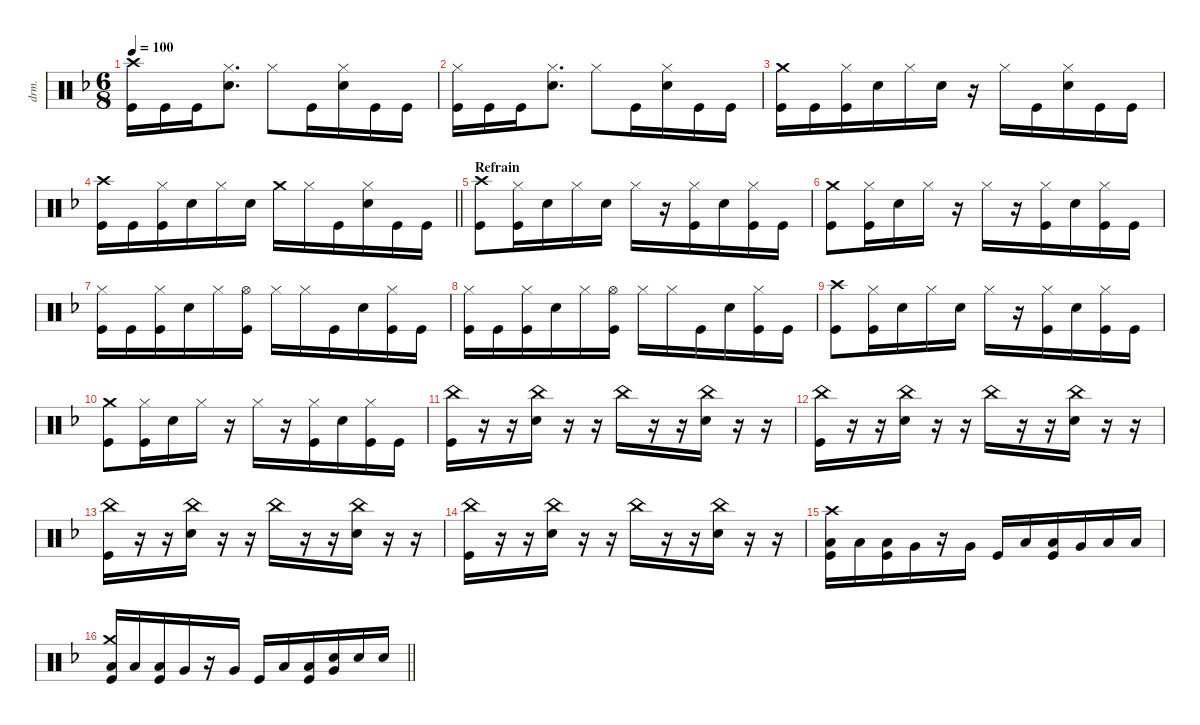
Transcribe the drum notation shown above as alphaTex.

\defaultSystemsLayout 4
\hideDynamics
\bracketExtendMode nobrackets
\otherSystemsTrackNameOrientation horizontal
\track ("Percussions" "drm.") {instrument percussion}
\staff {score}
\articulation defaults
\ts (6 8)
\tempo 100
\clef neutral
\ks dminor
("Crash high (hit)"{acc forcenatural} "Kick (hit)"{acc forcenatural}).16{dy f} "Kick (hit)"{acc forcenatural}.16 "Kick (hit)"{acc forcenatural}.16 ("Hi-Hat (closed)"{acc forcenatural} "Snare (hit) 2"{acc forcenatural}).8{d} "Hi-Hat (closed)"{acc forcenatural}.8 "Kick (hit)"{acc forcenatural}.16 ("Hi-Hat (closed)"{acc forcenatural} "Snare (hit) 2"{acc forcenatural}).16 "Kick (hit)"{acc forcenatural}.16 "Kick (hit)"{acc forcenatural}.16 |
("Hi-Hat (closed)"{acc forcenatural} "Kick (hit)"{acc forcenatural}).16 "Kick (hit)"{acc forcenatural}.16 "Kick (hit)"{acc forcenatural}.16 ("Hi-Hat (closed)"{acc forcenatural} "Snare (hit) 2"{acc forcenatural}).8{d} "Hi-Hat (closed)"{acc forcenatural}.8 "Kick (hit)"{acc forcenatural}.16 ("Hi-Hat (closed)"{acc forcenatural} "Snare (hit) 2"{acc forcenatural}).16 "Kick (hit)"{acc forcenatural}.16 "Kick (hit)"{acc forcenatural}.16 |
("Crash medium (hit)"{acc forcenatural} "Kick (hit)"{acc forcenatural}).16 "Kick (hit)"{acc forcenatural}.16 ("Hi-Hat (closed)"{acc forcenatural} "Kick (hit)"{acc forcenatural}).16 "Snare (hit) 2"{acc forcenatural}.16 "Hi-Hat (closed)"{acc forcenatural}.16 "Snare (hit) 2"{acc forcenatural}.16 r.16 "Hi-Hat (closed)"{acc forcenatural}.16 "Kick (hit)"{acc forcenatural}.16 ("Hi-Hat (closed)"{acc forcenatural} "Snare (hit) 2"{acc forcenatural}).16 "Kick (hit)"{acc forcenatural}.16 "Kick (hit)"{acc forcenatural}.16 |
\barLineRight lightlight
("Crash high (hit)"{acc forcenatural} "Kick (hit)"{acc forcenatural}).16 "Kick (hit)"{acc forcenatural}.16 ("Hi-Hat (closed)"{acc forcenatural} "Kick (hit)"{acc forcenatural}).16 "Snare (hit) 2"{acc forcenatural}.16 "Hi-Hat (closed)"{acc forcenatural}.16 "Snare (hit) 2"{acc forcenatural}.16 "Crash medium (hit)"{acc forcenatural}.16 "Hi-Hat (closed)"{acc forcenatural}.16 "Kick (hit)"{acc forcenatural}.16 ("Hi-Hat (closed)"{acc forcenatural} "Snare (hit) 2"{acc forcenatural}).16 "Kick (hit)"{acc forcenatural}.16 "Kick (hit)"{acc forcenatural}.16 |
\section ("" "Refrain")
("Crash high (hit)"{acc forcenatural} "Kick (hit)"{acc forcenatural}).8 ("Hi-Hat (closed)"{acc forcenatural} "Kick (hit)"{acc forcenatural}).16 "Snare (hit) 2"{acc forcenatural}.16 "Hi-Hat (closed)"{acc forcenatural}.16 "Snare (hit) 2"{acc forcenatural}.16 "Hi-Hat (closed)"{acc forcenatural}.16 r.16 ("Hi-Hat (closed)"{acc forcenatural} "Kick (hit)"{acc forcenatural}).16 "Snare (hit) 2"{acc forcenatural}.16 ("Hi-Hat (closed)"{acc forcenatural} "Kick (hit)"{acc forcenatural}).16 "Kick (hit)"{acc forcenatural}.16 |
("Crash medium (hit)"{acc forcenatural} "Kick (hit)"{acc forcenatural}).8 ("Hi-Hat (closed)"{acc forcenatural} "Kick (hit)"{acc forcenatural}).16 "Snare (hit) 2"{acc forcenatural}.16 "Hi-Hat (closed)"{acc forcenatural}.16 r.16 "Hi-Hat (closed)"{acc forcenatural}.16 r.16 ("Hi-Hat (closed)"{acc forcenatural} "Kick (hit)"{acc forcenatural}).16 "Snare (hit) 2"{acc forcenatural}.16 ("Hi-Hat (closed)"{acc forcenatural} "Kick (hit)"{acc forcenatural}).16 "Kick (hit)"{acc forcenatural}.16 |
("Hi-Hat (closed)"{acc forcenatural} "Kick (hit)"{acc forcenatural}).16 "Kick (hit)"{acc forcenatural}.16 ("Hi-Hat (closed)"{acc forcenatural} "Kick (hit)"{acc forcenatural}).16 "Snare (hit) 2"{acc forcenatural}.16 "Hi-Hat (closed)"{acc forcenatural}.16 ("Hi-Hat (open)"{acc forcenatural} "Kick (hit)"{acc forcenatural}).16 "Hi-Hat (closed)"{acc forcenatural}.16 "Hi-Hat (closed)"{acc forcenatural}.16 "Kick (hit)"{acc forcenatural}.16 "Snare (hit) 2"{acc forcenatural}.16 ("Hi-Hat (closed)"{acc forcenatural} "Kick (hit)"{acc forcenatural}).16 "Kick (hit)"{acc forcenatural}.16 |
("Hi-Hat (closed)"{acc forcenatural} "Kick (hit)"{acc forcenatural}).16 "Kick (hit)"{acc forcenatural}.16 ("Hi-Hat (closed)"{acc forcenatural} "Kick (hit)"{acc forcenatural}).16 "Snare (hit) 2"{acc forcenatural}.16 "Hi-Hat (closed)"{acc forcenatural}.16 ("Hi-Hat (open)"{acc forcenatural} "Kick (hit)"{acc forcenatural}).16 "Hi-Hat (closed)"{acc forcenatural}.16 "Hi-Hat (closed)"{acc forcenatural}.16 "Kick (hit)"{acc forcenatural}.16 "Snare (hit) 2"{acc forcenatural}.16 ("Hi-Hat (closed)"{acc forcenatural} "Kick (hit)"{acc forcenatural}).16 "Kick (hit)"{acc forcenatural}.16 |
("Crash high (hit)"{acc forcenatural} "Kick (hit)"{acc forcenatural}).8 ("Hi-Hat (closed)"{acc forcenatural} "Kick (hit)"{acc forcenatural}).16 "Snare (hit) 2"{acc forcenatural}.16 "Hi-Hat (closed)"{acc forcenatural}.16 "Snare (hit) 2"{acc forcenatural}.16 "Hi-Hat (closed)"{acc forcenatural}.16 r.16 ("Hi-Hat (closed)"{acc forcenatural} "Kick (hit)"{acc forcenatural}).16 "Snare (hit) 2"{acc forcenatural}.16 ("Hi-Hat (closed)"{acc forcenatural} "Kick (hit)"{acc forcenatural}).16 "Kick (hit)"{acc forcenatural}.16 |
("Crash medium (hit)"{acc forcenatural} "Kick (hit)"{acc forcenatural}).8 ("Hi-Hat (closed)"{acc forcenatural} "Kick (hit)"{acc forcenatural}).16 "Snare (hit) 2"{acc forcenatural}.16 "Hi-Hat (closed)"{acc forcenatural}.16 r.16 "Hi-Hat (closed)"{acc forcenatural}.16 r.16 ("Hi-Hat (closed)"{acc forcenatural} "Kick (hit)"{acc forcenatural}).16 "Snare (hit) 2"{acc forcenatural}.16 ("Hi-Hat (closed)"{acc forcenatural} "Kick (hit)"{acc forcenatural}).16 "Kick (hit)"{acc forcenatural}.16 |
("China (hit)"{acc forcenatural} "Kick (hit)"{acc forcenatural}).16 r.16 r.16 ("China (hit)"{acc forcenatural} "Snare (hit) 2"{acc forcenatural}).16 r.16 r.16 "China (hit)"{acc forcenatural}.16 r.16 r.16 ("China (hit)"{acc forcenatural} "Snare (hit) 2"{acc forcenatural}).16 r.16 r.16 |
("China (hit)"{acc forcenatural} "Kick (hit)"{acc forcenatural}).16 r.16 r.16 ("China (hit)"{acc forcenatural} "Snare (hit) 2"{acc forcenatural}).16 r.16 r.16 "China (hit)"{acc forcenatural}.16 r.16 r.16 ("China (hit)"{acc forcenatural} "Snare (hit) 2"{acc forcenatural}).16 r.16 r.16 |
("China (hit)"{acc forcenatural} "Kick (hit)"{acc forcenatural}).16 r.16 r.16 ("China (hit)"{acc forcenatural} "Snare (hit) 2"{acc forcenatural}).16 r.16 r.16 "China (hit)"{acc forcenatural}.16 r.16 r.16 ("China (hit)"{acc forcenatural} "Snare (hit) 2"{acc forcenatural}).16 r.16 r.16 |
("China (hit)"{acc forcenatural} "Kick (hit)"{acc forcenatural}).16 r.16 r.16 ("China (hit)"{acc forcenatural} "Snare (hit) 2"{acc forcenatural}).16 r.16 r.16 "China (hit)"{acc forcenatural}.16 r.16 r.16 ("China (hit)"{acc forcenatural} "Snare (hit) 2"{acc forcenatural}).16 r.16 r.16 |
("Crash high (hit)"{acc forcenatural} "Low Floor Tom (hit)"{acc forcenatural} "Kick (hit)"{acc forcenatural}).16 "Low Floor Tom (hit)"{acc forcenatural}.16 ("Low Floor Tom (hit)"{acc forcenatural} "Kick (hit)"{acc forcenatural}).16 "Very Low Tom (hit)"{acc forcenatural}.16 r.16 "Very Low Tom (hit)"{acc forcenatural}.16 "Kick (hit)"{acc forcenatural}.16 "Low Floor Tom (hit)"{acc forcenatural}.16 ("Low Floor Tom (hit)"{acc forcenatural} "Kick (hit)"{acc forcenatural}).16 "Very Low Tom (hit)"{acc forcenatural}.16 "Low Floor Tom (hit)"{acc forcenatural}.16 "Low Floor Tom (hit)"{acc forcenatural}.16 |
\barLineRight lightlight
("Crash medium (hit)"{acc forcenatural} "Low Floor Tom (hit)"{acc forcenatural} "Kick (hit)"{acc forcenatural}).16 "Low Floor Tom (hit)"{acc forcenatural}.16 ("Low Floor Tom (hit)"{acc forcenatural} "Kick (hit)"{acc forcenatural}).16 "Very Low Tom (hit)"{acc forcenatural}.16 r.16 "Very Low Tom (hit)"{acc forcenatural}.16 "Kick (hit)"{acc forcenatural}.16 "Low Floor Tom (hit)"{acc forcenatural}.16 ("Low Floor Tom (hit)"{acc forcenatural} "Kick (hit)"{acc forcenatural}).16 ("Very Low Tom (hit)"{acc forcenatural} "Snare (hit) 2"{acc forcenatural}).16 "Snare (hit) 2"{acc forcenatural}.16 "Snare (hit) 2"{acc forcenatural}.16
